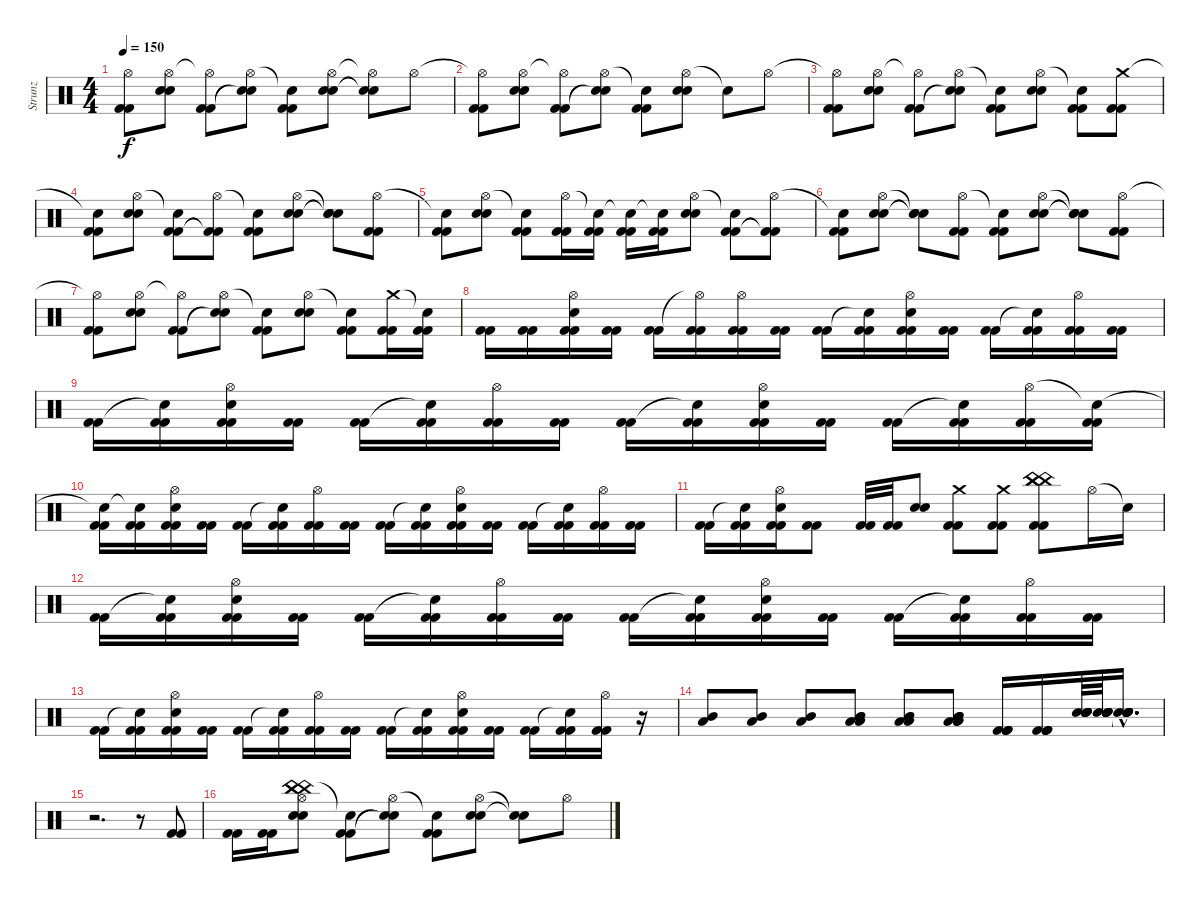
\track ("Strunz" "Strunz") {instrument percussion}
\staff {score}
\articulation defaults
\ts (4 4)
\tempo 150
\clef neutral
\ks c
("Hi-Hat (open)"{t} "Kick (hit) 2" "Kick (hit) 2").8{dy f} ("Hi-Hat (open)" "Snare (hit) 2" "Snare (hit) 2").8 ("Hi-Hat (open)"{t} "Kick (hit) 2" "Kick (hit) 2").8 ("Hi-Hat (open)" "Snare (hit)"{t} "Snare (hit)"{t}).8 ("Snare (hit)"{t} "Kick (hit) 2" "Kick (hit) 2").8 ("Hi-Hat (open)" "Snare (hit) 2" "Snare (hit) 2").8 ("Hi-Hat (open)"{t} "Snare (hit)"{t} "Snare (hit)"{t}).8 "Hi-Hat (open)".8 |
("Hi-Hat (open)"{t} "Kick (hit) 2" "Kick (hit) 2").8 ("Hi-Hat (open)" "Snare (hit) 2" "Snare (hit) 2").8 ("Hi-Hat (open)"{t} "Kick (hit) 2" "Kick (hit) 2").8 ("Hi-Hat (open)" "Snare (hit)"{t} "Snare (hit)"{t}).8 ("Snare (hit)"{t} "Kick (hit) 2" "Kick (hit) 2").8 ("Hi-Hat (open)" "Snare (hit) 2" "Snare (hit) 2").8 "Snare (hit)"{t}.8 "Hi-Hat (open)".8 |
("Hi-Hat (open)"{t} "Kick (hit) 2" "Kick (hit) 2").8 ("Hi-Hat (open)" "Snare (hit) 2" "Snare (hit) 2").8 ("Hi-Hat (open)"{t} "Kick (hit) 2" "Kick (hit) 2").8 ("Hi-Hat (open)" "Snare (hit)"{t} "Snare (hit)"{t}).8 ("Snare (hit)"{t} "Kick (hit) 2" "Kick (hit) 2").8 ("Hi-Hat (open)" "Snare (hit) 2" "Snare (hit) 2").8 ("Snare (hit)"{t} "Kick (hit) 2" "Kick (hit) 2").8 ("Crash medium (hit)" "Kick (hit) 2" "Kick (hit) 2").8 |
("Snare (hit)"{t} "Kick (hit) 2" "Kick (hit) 2").8 ("Hi-Hat (open)" "Snare (hit) 2" "Snare (hit) 2").8 ("Snare (hit)"{t} "Kick (hit) 2" "Kick (hit) 2").8 ("Hi-Hat (open)" "Kick (hit) 2"{t} "Kick (hit) 2"{t}).8 ("Snare (hit)"{t} "Kick (hit) 2" "Kick (hit) 2").8 ("Hi-Hat (open)" "Snare (hit) 2" "Snare (hit) 2").8 ("Snare (hit)"{t} "Snare (hit) 2"{t} "Snare (hit) 2"{t}).8 ("Hi-Hat (open)" "Kick (hit) 2" "Kick (hit) 2").8 |
("Snare (hit)"{t} "Kick (hit) 2" "Kick (hit) 2").8 ("Hi-Hat (open)" "Snare (hit) 2" "Snare (hit) 2").8 ("Snare (hit)"{t} "Kick (hit) 2" "Kick (hit) 2").8 ("Hi-Hat (open)" "Kick (hit) 2" "Kick (hit) 2").16 ("Snare (hit)"{t} "Kick (hit) 2" "Kick (hit) 2").16 ("Snare (hit)"{t} "Kick (hit) 2" "Kick (hit) 2").16 ("Snare (hit)"{t} "Kick (hit) 2" "Kick (hit) 2").16 ("Hi-Hat (open)" "Snare (hit) 2" "Snare (hit) 2").8 ("Snare (hit)"{t} "Kick (hit) 2" "Kick (hit) 2").8 ("Hi-Hat (open)" "Kick (hit) 2"{t} "Kick (hit) 2"{t}).8 |
("Snare (hit)"{t} "Kick (hit) 2" "Kick (hit) 2").8 ("Hi-Hat (open)" "Snare (hit) 2" "Snare (hit) 2").8 ("Snare (hit)"{t} "Snare (hit) 2"{t} "Snare (hit) 2"{t}).8 ("Hi-Hat (open)" "Kick (hit) 2" "Kick (hit) 2").8 ("Snare (hit)"{t} "Kick (hit) 2" "Kick (hit) 2").8 ("Hi-Hat (open)" "Snare (hit) 2" "Snare (hit) 2").8 ("Snare (hit)"{t} "Snare (hit)"{t} "Snare (hit)"{t}).8 ("Hi-Hat (open)" "Kick (hit) 2" "Kick (hit) 2").8 |
("Hi-Hat (open)"{t} "Kick (hit) 2" "Kick (hit) 2").8 ("Hi-Hat (open)" "Snare (hit) 2" "Snare (hit) 2").8 ("Hi-Hat (open)"{t} "Kick (hit) 2" "Kick (hit) 2").8 ("Hi-Hat (open)" "Snare (hit)"{t} "Snare (hit)"{t}).8 ("Snare (hit)"{t} "Kick (hit) 2" "Kick (hit) 2").8 ("Hi-Hat (open)" "Snare (hit) 2" "Snare (hit) 2").8 ("Snare (hit)"{t} "Kick (hit) 2" "Kick (hit) 2").8 ("Crash medium (hit)" "Kick (hit) 2" "Kick (hit) 2").16 ("Snare (hit)"{t} "Kick (hit) 2" "Kick (hit) 2").16 |
("Kick (hit) 2" "Kick (hit) 2").16 ("Kick (hit) 2" "Kick (hit) 2").16 ("Hi-Hat (open)" "Snare (hit) 2" "Kick (hit) 2" "Kick (hit) 2").16 ("Kick (hit) 2" "Kick (hit) 2").16 ("Kick (hit) 2" "Kick (hit) 2").16 ("Hi-Hat (open)"{t} "Kick (hit) 2" "Kick (hit) 2").16 ("Hi-Hat (open)" "Kick (hit) 2" "Kick (hit) 2").16 ("Kick (hit) 2" "Kick (hit) 2").16 ("Kick (hit) 2" "Kick (hit) 2").16 ("Snare (hit)"{t} "Kick (hit) 2" "Kick (hit) 2").16 ("Hi-Hat (open)" "Snare (hit) 2" "Kick (hit) 2" "Kick (hit) 2").16 ("Kick (hit) 2" "Kick (hit) 2").16 ("Kick (hit) 2" "Kick (hit) 2").16 ("Snare (hit)"{t} "Kick (hit) 2" "Kick (hit) 2").16 ("Hi-Hat (open)" "Kick (hit) 2" "Kick (hit) 2").16 ("Kick (hit) 2" "Kick (hit) 2").16 |
("Kick (hit) 2" "Kick (hit) 2").16 ("Snare (hit)"{t} "Kick (hit) 2" "Kick (hit) 2").16 ("Hi-Hat (open)" "Snare (hit) 2" "Kick (hit) 2" "Kick (hit) 2").16 ("Kick (hit) 2" "Kick (hit) 2").16 ("Kick (hit) 2" "Kick (hit) 2").16 ("Snare (hit)"{t} "Kick (hit) 2" "Kick (hit) 2").16 ("Hi-Hat (open)" "Kick (hit) 2" "Kick (hit) 2").16 ("Kick (hit) 2" "Kick (hit) 2").16 ("Kick (hit) 2" "Kick (hit) 2").16 ("Snare (hit)"{t} "Kick (hit) 2" "Kick (hit) 2").16 ("Hi-Hat (open)" "Snare (hit) 2" "Kick (hit) 2" "Kick (hit) 2").16 ("Kick (hit) 2" "Kick (hit) 2").16 ("Kick (hit) 2" "Kick (hit) 2").16 ("Snare (hit)"{t} "Kick (hit) 2" "Kick (hit) 2").16 ("Hi-Hat (open)" "Kick (hit) 2" "Kick (hit) 2").16 ("Snare (hit)"{t} "Kick (hit) 2" "Kick (hit) 2").16 |
("Snare (hit)"{t} "Kick (hit) 2" "Kick (hit) 2").16 ("Snare (hit)"{t} "Kick (hit) 2" "Kick (hit) 2").16 ("Hi-Hat (open)" "Snare (hit) 2" "Kick (hit) 2" "Kick (hit) 2").16 ("Kick (hit) 2" "Kick (hit) 2").16 ("Kick (hit) 2" "Kick (hit) 2").16 ("Snare (hit)"{t} "Kick (hit) 2" "Kick (hit) 2").16 ("Hi-Hat (open)" "Kick (hit) 2" "Kick (hit) 2").16 ("Kick (hit) 2" "Kick (hit) 2").16 ("Kick (hit) 2" "Kick (hit) 2").16 ("Snare (hit)"{t} "Kick (hit) 2" "Kick (hit) 2").16 ("Hi-Hat (open)" "Snare (hit) 2" "Kick (hit) 2" "Kick (hit) 2").16 ("Kick (hit) 2" "Kick (hit) 2").16 ("Kick (hit) 2" "Kick (hit) 2").16 ("Snare (hit)"{t} "Kick (hit) 2" "Kick (hit) 2").16 ("Hi-Hat (open)" "Kick (hit) 2" "Kick (hit) 2").16 ("Kick (hit) 2" "Kick (hit) 2").16 |
("Kick (hit) 2" "Kick (hit) 2").16 ("Snare (hit)"{t} "Kick (hit) 2" "Kick (hit) 2").16 ("Hi-Hat (open)" "Snare (hit) 2" "Kick (hit) 2" "Kick (hit) 2").16 ("Kick (hit) 2" "Kick (hit) 2").8 ("Kick (hit) 2" "Kick (hit) 2").32 ("Kick (hit) 2" "Kick (hit) 2").32 ("Snare (hit) 2" "Snare (hit) 2").8 ("Crash medium (hit)" "Kick (hit) 2" "Kick (hit) 2").8 ("Crash medium (hit)" "Kick (hit) 2" "Kick (hit) 2").8 ("China (hit)" "China (hit)" "China (hit)" "Kick (hit) 2" "Kick (hit) 2").8 "Hi-Hat (open)".16 "Snare (hit)"{t}.16 |
("Kick (hit) 2" "Kick (hit) 2").16 ("Snare (hit)"{t} "Kick (hit) 2" "Kick (hit) 2").16 ("Hi-Hat (open)" "Snare (hit) 2" "Kick (hit) 2" "Kick (hit) 2").16 ("Kick (hit) 2" "Kick (hit) 2").16 ("Kick (hit) 2" "Kick (hit) 2").16 ("Snare (hit)"{t} "Kick (hit) 2" "Kick (hit) 2").16 ("Hi-Hat (open)" "Kick (hit) 2" "Kick (hit) 2").16 ("Kick (hit) 2" "Kick (hit) 2").16 ("Kick (hit) 2" "Kick (hit) 2").16 ("Snare (hit)"{t} "Kick (hit) 2" "Kick (hit) 2").16 ("Hi-Hat (open)" "Snare (hit) 2" "Kick (hit) 2" "Kick (hit) 2").16 ("Kick (hit) 2" "Kick (hit) 2").16 ("Kick (hit) 2" "Kick (hit) 2").16 ("Snare (hit)"{t} "Kick (hit) 2" "Kick (hit) 2").16 ("Hi-Hat (open)" "Kick (hit) 2" "Kick (hit) 2").16 ("Kick (hit) 2" "Kick (hit) 2").16 |
("Kick (hit) 2" "Kick (hit) 2").16 ("Snare (hit)"{t} "Kick (hit) 2" "Kick (hit) 2").16 ("Hi-Hat (open)" "Snare (hit) 2" "Kick (hit) 2" "Kick (hit) 2").16 ("Kick (hit) 2" "Kick (hit) 2").16 ("Kick (hit) 2" "Kick (hit) 2").16 ("Snare (hit)"{t} "Kick (hit) 2" "Kick (hit) 2").16 ("Hi-Hat (open)" "Kick (hit) 2" "Kick (hit) 2").16 ("Kick (hit) 2" "Kick (hit) 2").16 ("Kick (hit) 2" "Kick (hit) 2").16 ("Snare (hit)"{t} "Kick (hit) 2" "Kick (hit) 2").16 ("Hi-Hat (open)" "Snare (hit) 2" "Kick (hit) 2" "Kick (hit) 2").16 ("Kick (hit) 2" "Kick (hit) 2").16 ("Kick (hit) 2" "Kick (hit) 2").16 ("Snare (hit)"{t} "Kick (hit) 2" "Kick (hit) 2").16 ("Hi-Hat (open)" "Kick (hit) 2" "Kick (hit) 2").16 r.16 |
("Mid Tom (hit)" "Low Tom (hit)").8 ("Mid Tom (hit)" "Low Tom (hit)").8 ("Mid Tom (hit)" "Low Tom (hit)").8 ("Low Tom (hit)" "Low Tom (hit)" "Mid Tom (hit)" "Mid Tom (hit)").8 ("Low Tom (hit)" "Low Tom (hit)" "Mid Tom (hit)" "Mid Tom (hit)").8 ("Low Tom (hit)" "Low Tom (hit)" "Low Tom (hit)" "Mid Tom (hit)" "Mid Tom (hit)" "Mid Tom (hit)").8 ("Kick (hit) 2" "Kick (hit) 2" "Kick (hit) 2" "Kick (hit) 2").16 ("Kick (hit) 2" "Kick (hit) 2" "Kick (hit) 2" "Kick (hit) 2").16 ("Snare (hit) 2" "Snare (hit) 2" "Snare (hit) 2" "Snare (hit) 2" "Snare (hit) 2" "Snare (hit) 2").64 ("Snare (hit) 2" "Snare (hit) 2" "Snare (hit) 2" "Snare (hit) 2" "Snare (hit) 2" "Snare (hit) 2").64 ("Snare (hit)"{hac t} "Snare (hit)"{hac t} "Snare (hit)"{hac t} "Snare (hit)"{hac t} "Snare (hit)"{hac t} "Snare (hit)"{hac t}).16{d} |
r.2{d} r.8 ("Kick (hit) 2" "Kick (hit) 2").8 |
("Kick (hit) 2" "Kick (hit) 2").16 ("Kick (hit) 2" "Kick (hit) 2").16 ("China (hit)" "Hi-Hat (open)" "China (hit)" "Snare (hit) 2" "Snare (hit) 2" "China (hit)").8 ("Snare (hit)"{t} "Kick (hit) 2" "Kick (hit) 2").8 ("Hi-Hat (open)" "Snare (hit)"{t} "Snare (hit)"{t}).8 ("Snare (hit)"{t} "Kick (hit) 2" "Kick (hit) 2").8 ("Hi-Hat (open)" "Snare (hit) 2" "Snare (hit) 2").8 ("Snare (hit)"{t} "Snare (hit)"{t}).8 "Hi-Hat (open)".8
